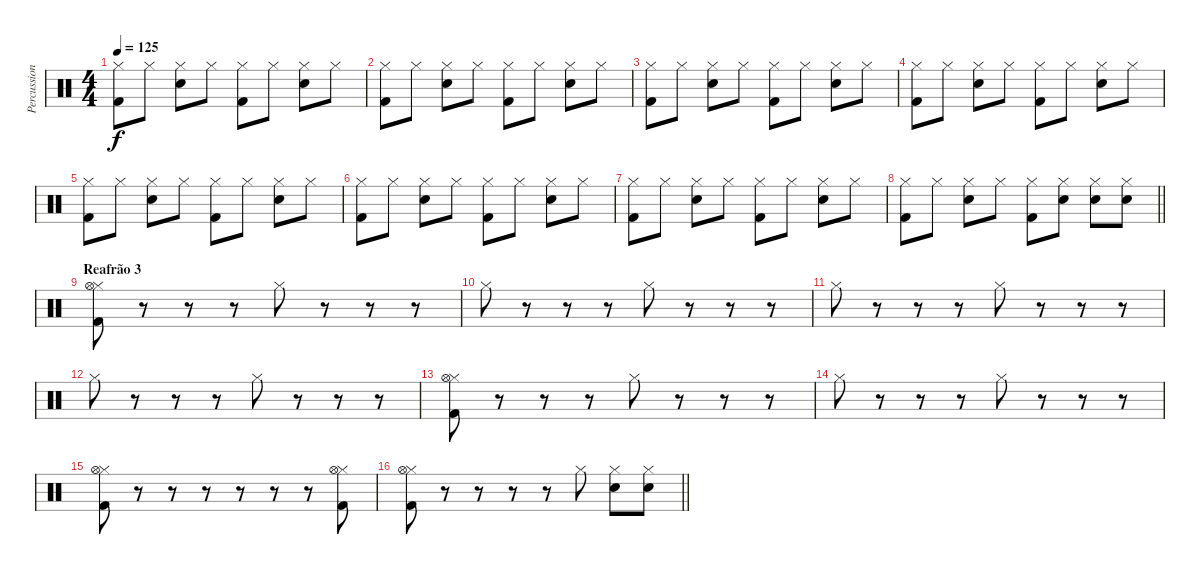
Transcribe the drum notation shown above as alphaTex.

\track ("Percussion" "Percussion") {instrument percussion}
\staff {score}
\articulation defaults
\ts (4 4)
\tempo 125
\clef neutral
\ks c
("Kick (hit) 2" "Hi-Hat (closed)").8{dy f} "Hi-Hat (closed)".8 ("Electric Snare (hit)" "Hi-Hat (closed)").8 "Hi-Hat (closed)".8 ("Kick (hit) 2" "Hi-Hat (closed)").8 "Hi-Hat (closed)".8 ("Electric Snare (hit)" "Hi-Hat (closed)").8 "Hi-Hat (closed)".8 |
("Kick (hit) 2" "Hi-Hat (closed)").8 "Hi-Hat (closed)".8 ("Electric Snare (hit)" "Hi-Hat (closed)").8 "Hi-Hat (closed)".8 ("Kick (hit) 2" "Hi-Hat (closed)").8 "Hi-Hat (closed)".8 ("Electric Snare (hit)" "Hi-Hat (closed)").8 "Hi-Hat (closed)".8 |
("Kick (hit) 2" "Hi-Hat (closed)").8 "Hi-Hat (closed)".8 ("Electric Snare (hit)" "Hi-Hat (closed)").8 "Hi-Hat (closed)".8 ("Kick (hit) 2" "Hi-Hat (closed)").8 "Hi-Hat (closed)".8 ("Electric Snare (hit)" "Hi-Hat (closed)").8 "Hi-Hat (closed)".8 |
("Kick (hit) 2" "Hi-Hat (closed)").8 "Hi-Hat (closed)".8 ("Electric Snare (hit)" "Hi-Hat (closed)").8 "Hi-Hat (closed)".8 ("Kick (hit) 2" "Hi-Hat (closed)").8 "Hi-Hat (closed)".8 ("Electric Snare (hit)" "Hi-Hat (closed)").8 "Hi-Hat (closed)".8 |
("Kick (hit) 2" "Hi-Hat (closed)").8 "Hi-Hat (closed)".8 ("Electric Snare (hit)" "Hi-Hat (closed)").8 "Hi-Hat (closed)".8 ("Kick (hit) 2" "Hi-Hat (closed)").8 "Hi-Hat (closed)".8 ("Electric Snare (hit)" "Hi-Hat (closed)").8 "Hi-Hat (closed)".8 |
("Kick (hit) 2" "Hi-Hat (closed)").8 "Hi-Hat (closed)".8 ("Electric Snare (hit)" "Hi-Hat (closed)").8 "Hi-Hat (closed)".8 ("Kick (hit) 2" "Hi-Hat (closed)").8 "Hi-Hat (closed)".8 ("Electric Snare (hit)" "Hi-Hat (closed)").8 "Hi-Hat (closed)".8 |
("Kick (hit) 2" "Hi-Hat (closed)").8 "Hi-Hat (closed)".8 ("Electric Snare (hit)" "Hi-Hat (closed)").8 "Hi-Hat (closed)".8 ("Kick (hit) 2" "Hi-Hat (closed)").8 "Hi-Hat (closed)".8 ("Electric Snare (hit)" "Hi-Hat (closed)").8 "Hi-Hat (closed)".8 |
\barLineRight lightlight
("Kick (hit) 2" "Hi-Hat (closed)").8 "Hi-Hat (closed)".8 ("Electric Snare (hit)" "Hi-Hat (closed)").8 "Hi-Hat (closed)".8 ("Kick (hit) 2" "Hi-Hat (closed)").8 ("Electric Snare (hit)" "Hi-Hat (closed)").8 ("Electric Snare (hit)" "Hi-Hat (closed)").8 ("Electric Snare (hit)" "Hi-Hat (closed)").8 |
\section ("" "Reafrão 3")
("Kick (hit) 2" "Hi-Hat (closed)" "Hi-Hat (open)").8 r.8 r.8 r.8 "Hi-Hat (closed)".8 r.8 r.8 r.8 |
"Hi-Hat (closed)".8 r.8 r.8 r.8 "Hi-Hat (closed)".8 r.8 r.8 r.8 |
"Hi-Hat (closed)".8 r.8 r.8 r.8 "Hi-Hat (closed)".8 r.8 r.8 r.8 |
"Hi-Hat (closed)".8 r.8 r.8 r.8 "Hi-Hat (closed)".8 r.8 r.8 r.8 |
("Kick (hit) 2" "Hi-Hat (closed)" "Hi-Hat (open)").8 r.8 r.8 r.8 "Hi-Hat (closed)".8 r.8 r.8 r.8 |
"Hi-Hat (closed)".8 r.8 r.8 r.8 "Hi-Hat (closed)".8 r.8 r.8 r.8 |
("Kick (hit) 2" "Hi-Hat (closed)" "Hi-Hat (open)").8 r.8 r.8 r.8 r.8 r.8 r.8 ("Kick (hit) 2" "Hi-Hat (closed)" "Hi-Hat (open)").8 |
\barLineRight lightlight
("Kick (hit) 2" "Hi-Hat (closed)" "Hi-Hat (open)").8 r.8 r.8 r.8 r.8 "Hi-Hat (closed)".8 ("Electric Snare (hit)" "Hi-Hat (closed)").8 ("Electric Snare (hit)" "Hi-Hat (closed)").8
